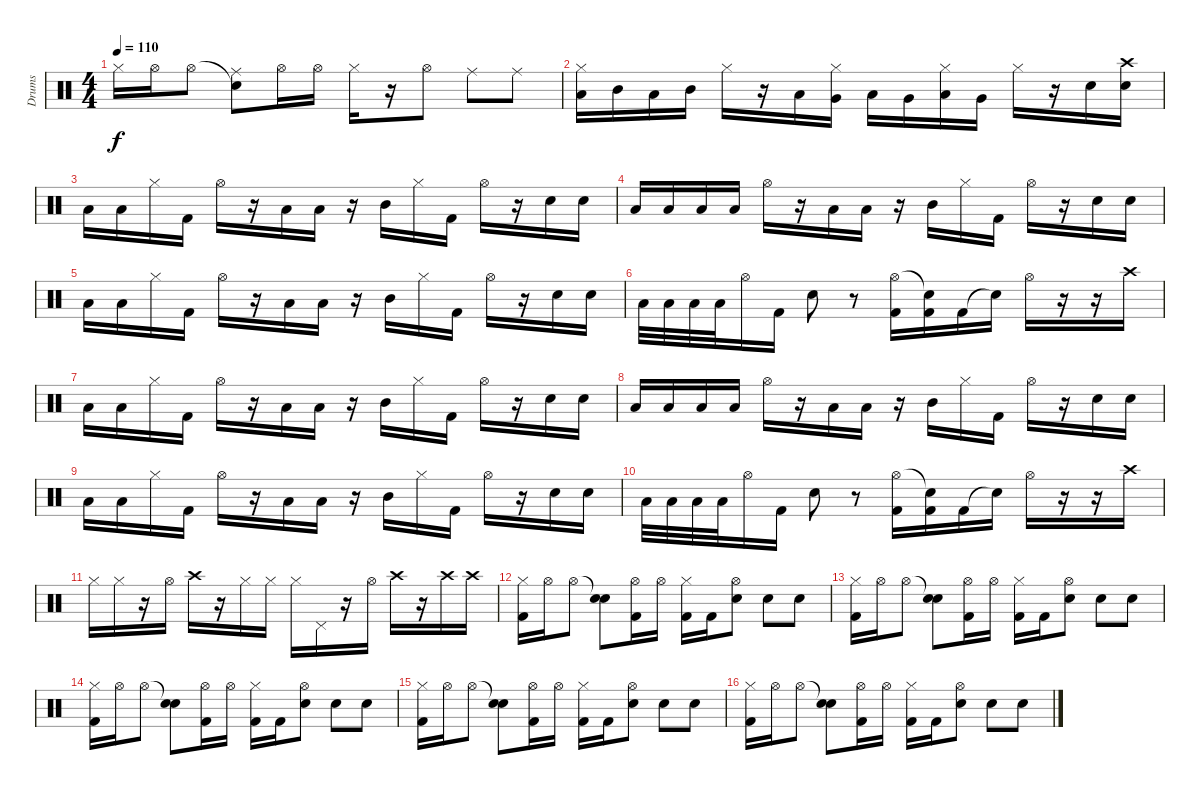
\track ("Drums" "Drums") {instrument percussion}
\staff {score}
\articulation defaults
\ts (4 4)
\tempo 110
\clef neutral
\ks c "Hi-Hat (closed)".16{dy f} "Hi-Hat (open)".16 "Hi-Hat (open)".8
("Snare (hit)"{t} "Ride (middle)").8 "Hi-Hat (open)".16 "Hi-Hat (open)".16 "Hi-Hat (closed)".16 r.16 "Hi-Hat (open)".8 "Ride (middle)".8 "Ride (middle)".8 |
("Hi-Hat (closed)" "Low Tom (hit)").16 "Mid Tom (hit)".16 "Low Tom (hit)".16 "Mid Tom (hit)".16 "Hi-Hat (closed)".16 r.16 "Low Tom (hit)".16 ("Hi-Hat (closed)" "Very Low Tom (hit)").16 "Low Tom (hit)".16 "Very Low Tom (hit)".16 ("Hi-Hat (closed)" "Low Tom (hit)").16 "Very Low Tom (hit)".16 "Hi-Hat (closed)".16 r.16 "Snare (hit) 2".16 ("Crash high (hit)" "Snare (hit) 2").16 |
"Low Tom (hit)".16 "Low Tom (hit)".16 "Hi-Hat (closed)".16 "Kick (hit) 2".16 "Hi-Hat (open)".16 r.16 "Low Tom (hit)".16 "Low Tom (hit)".16 r.16 "Mid Tom (hit)".16 "Hi-Hat (closed)".16 "Kick (hit) 2".16 "Hi-Hat (open)".16 r.16 "Snare (hit) 2".16 "Snare (hit) 2".16 |
"Low Floor Tom (hit)".16 "Low Floor Tom (hit)".16 "Low Floor Tom (hit)".16 "Low Floor Tom (hit)".16 "Hi-Hat (open)".16 r.16 "Low Tom (hit)".16 "Low Tom (hit)".16 r.16 "Mid Tom (hit)".16 "Hi-Hat (closed)".16 "Kick (hit) 2".16 "Hi-Hat (open)".16 r.16 "Snare (hit) 2".16 "Snare (hit) 2".16 |
"Low Tom (hit)".16 "Low Tom (hit)".16 "Hi-Hat (closed)".16 "Kick (hit) 2".16 "Hi-Hat (open)".16 r.16 "Low Tom (hit)".16 "Low Tom (hit)".16 r.16 "Mid Tom (hit)".16 "Hi-Hat (closed)".16 "Kick (hit) 2".16 "Hi-Hat (open)".16 r.16 "Snare (hit) 2".16 "Snare (hit) 2".16 |
"Low Tom (hit)".32 "Low Tom (hit)".32 "Low Tom (hit)".32 "Low Tom (hit)".32 "Hi-Hat (open)".16 "Kick (hit) 2".16 "Snare (hit) 2".8 r.8 ("Hi-Hat (open)" "Kick (hit) 2").16 ("Snare (hit)"{t} "Kick (hit) 2").16 "Kick (hit) 2".16 "Snare (hit)"{t}.16 "Hi-Hat (open)".16 r.16 r.16 "Crash high (hit)".16 |
"Low Tom (hit)".16 "Low Tom (hit)".16 "Hi-Hat (closed)".16 "Kick (hit) 2".16 "Hi-Hat (open)".16 r.16 "Low Tom (hit)".16 "Low Tom (hit)".16 r.16 "Mid Tom (hit)".16 "Hi-Hat (closed)".16 "Kick (hit) 2".16 "Hi-Hat (open)".16 r.16 "Snare (hit) 2".16 "Snare (hit) 2".16 |
"Low Floor Tom (hit)".16 "Low Floor Tom (hit)".16 "Low Floor Tom (hit)".16 "Low Floor Tom (hit)".16 "Hi-Hat (open)".16 r.16 "Low Tom (hit)".16 "Low Tom (hit)".16 r.16 "Mid Tom (hit)".16 "Hi-Hat (closed)".16 "Kick (hit) 2".16 "Hi-Hat (open)".16 r.16 "Snare (hit) 2".16 "Snare (hit) 2".16 |
"Low Tom (hit)".16 "Low Tom (hit)".16 "Hi-Hat (closed)".16 "Kick (hit) 2".16 "Hi-Hat (open)".16 r.16 "Low Tom (hit)".16 "Low Tom (hit)".16 r.16 "Mid Tom (hit)".16 "Hi-Hat (closed)".16 "Kick (hit) 2".16 "Hi-Hat (open)".16 r.16 "Snare (hit) 2".16 "Snare (hit) 2".16 |
"Low Tom (hit)".32 "Low Tom (hit)".32 "Low Tom (hit)".32 "Low Tom (hit)".32 "Hi-Hat (open)".16 "Kick (hit) 2".16 "Snare (hit) 2".8 r.8 ("Hi-Hat (open)" "Kick (hit) 2").16 ("Snare (hit)"{t} "Kick (hit) 2").16 "Kick (hit) 2".16 "Snare (hit)"{t}.16 "Hi-Hat (open)".16 r.16 r.16 "Crash high (hit)".16 |
"Hi-Hat (closed)".16 "Hi-Hat (closed)".16 r.16 "Hi-Hat (open)".16 "Crash high (hit)".16 r.16 "Hi-Hat (closed)".16 "Hi-Hat (closed)".16 "Hi-Hat (closed)".16 "Pedal Hi-Hat (hit)".16 r.16 "Hi-Hat (open)".16 "Crash high (hit)".16 r.16 "Crash high (hit)".16 "Crash high (hit)".16 |
("Hi-Hat (closed)" "Kick (hit) 2").16 "Hi-Hat (open)".16 "Hi-Hat (open)".8 ("Snare (hit)"{t} "Snare (hit) 2").8 ("Hi-Hat (open)" "Kick (hit) 2").16 "Hi-Hat (open)".16 ("Hi-Hat (closed)" "Kick (hit) 2").16 "Kick (hit) 2".16 ("Hi-Hat (open)" "Snare (hit) 2").8 "Snare (hit) 2".8 "Snare (hit) 2".8 |
("Hi-Hat (closed)" "Kick (hit) 2").16 "Hi-Hat (open)".16 "Hi-Hat (open)".8 ("Snare (hit)"{t} "Snare (hit) 2").8 ("Hi-Hat (open)" "Kick (hit) 2").16 "Hi-Hat (open)".16 ("Hi-Hat (closed)" "Kick (hit) 2").16 "Kick (hit) 2".16 ("Hi-Hat (open)" "Snare (hit) 2").8 "Snare (hit) 2".8 "Snare (hit) 2".8 |
("Hi-Hat (closed)" "Kick (hit) 2").16 "Hi-Hat (open)".16 "Hi-Hat (open)".8 ("Snare (hit)"{t} "Snare (hit) 2").8 ("Hi-Hat (open)" "Kick (hit) 2").16 "Hi-Hat (open)".16 ("Hi-Hat (closed)" "Kick (hit) 2").16 "Kick (hit) 2".16 ("Hi-Hat (open)" "Snare (hit) 2").8 "Snare (hit) 2".8 "Snare (hit) 2".8 |
("Hi-Hat (closed)" "Kick (hit) 2").16 "Hi-Hat (open)".16 "Hi-Hat (open)".8 ("Snare (hit)"{t} "Snare (hit) 2").8 ("Hi-Hat (open)" "Kick (hit) 2").16 "Hi-Hat (open)".16 ("Hi-Hat (closed)" "Kick (hit) 2").16 "Kick (hit) 2".16 ("Hi-Hat (open)" "Snare (hit) 2").8 "Snare (hit) 2".8 "Snare (hit) 2".8 |
("Hi-Hat (closed)" "Kick (hit) 2").16 "Hi-Hat (open)".16 "Hi-Hat (open)".8 ("Snare (hit)"{t} "Snare (hit) 2").8 ("Hi-Hat (open)" "Kick (hit) 2").16 "Hi-Hat (open)".16 ("Hi-Hat (closed)" "Kick (hit) 2").16 "Kick (hit) 2".16 ("Hi-Hat (open)" "Snare (hit) 2").8 "Snare (hit) 2".8 "Snare (hit) 2".8
